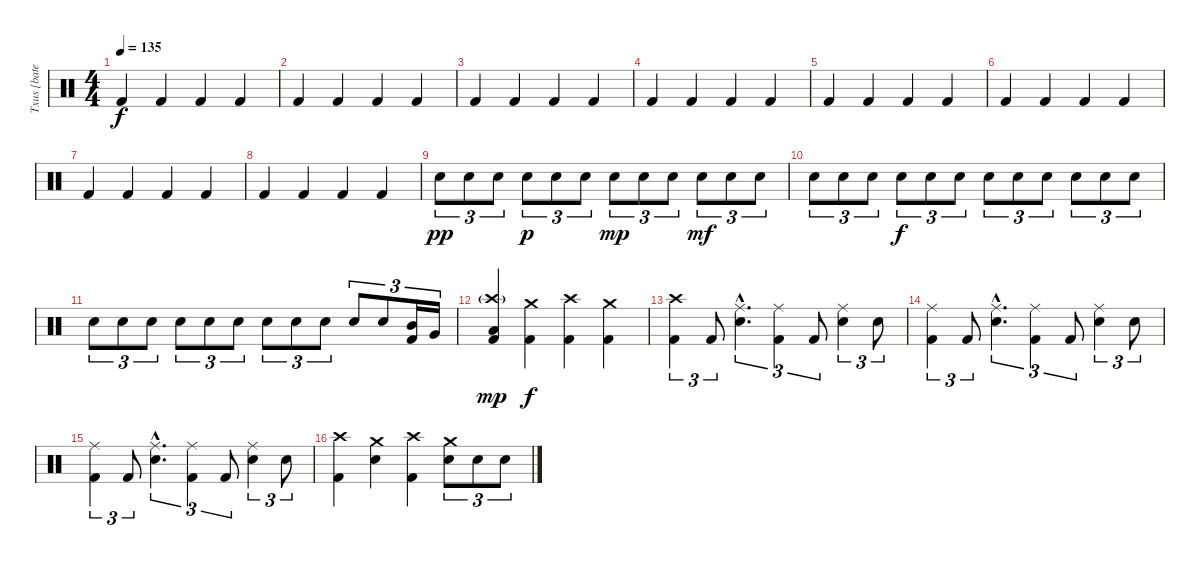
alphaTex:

\track ("Txus [bateria]" "Txus [bate") {instrument percussion}
\staff {score}
\articulation defaults
\ts (4 4)
\tempo 135
\clef neutral
\ks c "Kick (hit) 2".4{dy f} "Kick (hit) 2".4 "Kick (hit) 2".4 "Kick (hit) 2".4
|
"Kick (hit) 2".4 "Kick (hit) 2".4 "Kick (hit) 2".4 "Kick (hit) 2".4 |
"Kick (hit) 2".4 "Kick (hit) 2".4 "Kick (hit) 2".4 "Kick (hit) 2".4 |
"Kick (hit) 2".4 "Kick (hit) 2".4 "Kick (hit) 2".4 "Kick (hit) 2".4 |
"Kick (hit) 2".4 "Kick (hit) 2".4 "Kick (hit) 2".4 "Kick (hit) 2".4 |
"Kick (hit) 2".4 "Kick (hit) 2".4 "Kick (hit) 2".4 "Kick (hit) 2".4 |
"Kick (hit) 2".4 "Kick (hit) 2".4 "Kick (hit) 2".4 "Kick (hit) 2".4 |
"Kick (hit) 2".4 "Kick (hit) 2".4 "Kick (hit) 2".4 "Kick (hit) 2".4 |
"Snare (hit) 2".8{tu (3 2) dy pp} "Snare (hit) 2".8{tu (3 2)} "Snare (hit) 2".8{tu (3 2)} "Snare (hit) 2".8{tu (3 2) dy p} "Snare (hit) 2".8{tu (3 2)} "Snare (hit) 2".8{tu (3 2)} "Snare (hit) 2".8{tu (3 2) dy mp} "Snare (hit) 2".8{tu (3 2)} "Snare (hit) 2".8{tu (3 2)} "Snare (hit) 2".8{tu (3 2) dy mf} "Snare (hit) 2".8{tu (3 2)} "Snare (hit) 2".8{tu (3 2)} |
"Snare (hit) 2".8{tu (3 2)} "Snare (hit) 2".8{tu (3 2)} "Snare (hit) 2".8{tu (3 2)} "Snare (hit) 2".8{tu (3 2) dy f} "Snare (hit) 2".8{tu (3 2)} "Snare (hit) 2".8{tu (3 2)} "Snare (hit) 2".8{tu (3 2)} "Snare (hit) 2".8{tu (3 2)} "Snare (hit) 2".8{tu (3 2)} "Snare (hit) 2".8{tu (3 2)} "Snare (hit) 2".8{tu (3 2)} "Snare (hit) 2".8{tu (3 2)} |
"Snare (hit) 2".8{tu (3 2)} "Snare (hit) 2".8{tu (3 2)} "Snare (hit) 2".8{tu (3 2)} "Snare (hit) 2".8{tu (3 2)} "Snare (hit) 2".8{tu (3 2)} "Snare (hit) 2".8{tu (3 2)} "Snare (hit) 2".8{tu (3 2)} "Snare (hit) 2".8{tu (3 2)} "Snare (hit) 2".8{tu (3 2)} "Snare (hit) 2".8{tu (3 2)} "Snare (hit) 2".8{tu (3 2)} ("Mid Tom (hit)" "Kick (hit) 2").16{tu (3 2)} "Very Low Tom (hit)".16{tu (3 2)} |
("Crash high (hit)"{g} "Low Floor Tom (hit)" "Kick (hit) 2").4{dy mp} ("Crash medium (hit)" "Kick (hit) 2").4{dy f} ("Crash high (hit)" "Kick (hit) 2").4 ("Crash medium (hit)" "Kick (hit) 2").4 |
("Crash high (hit)" "Kick (hit) 2").4{tu (3 2)} "Kick (hit) 2".8{tu (3 2)} ("Ride (middle)"{hac} "Snare (hit) 2"{hac}).4{d tu (3 2)} ("Ride (middle)" "Kick (hit) 2").4{tu (3 2)} "Kick (hit) 2".8{tu (3 2)} ("Ride (middle)" "Snare (hit) 2").4{tu (3 2)} "Snare (hit) 2".8{tu (3 2)} |
("Ride (middle)" "Kick (hit) 2").4{tu (3 2)} "Kick (hit) 2".8{tu (3 2)} ("Ride (middle)"{hac} "Snare (hit) 2"{hac}).4{d tu (3 2)} ("Ride (middle)" "Kick (hit) 2").4{tu (3 2)} "Kick (hit) 2".8{tu (3 2)} ("Ride (middle)" "Snare (hit) 2").4{tu (3 2)} "Snare (hit) 2".8{tu (3 2)} |
("Ride (middle)" "Kick (hit) 2").4{tu (3 2)} "Kick (hit) 2".8{tu (3 2)} ("Ride (middle)"{hac} "Snare (hit) 2"{hac}).4{d tu (3 2)} ("Ride (middle)" "Kick (hit) 2").4{tu (3 2)} "Kick (hit) 2".8{tu (3 2)} ("Ride (middle)" "Snare (hit) 2").4{tu (3 2)} "Snare (hit) 2".8{tu (3 2)} |
("Crash high (hit)" "Kick (hit) 2").4 ("Crash medium (hit)" "Snare (hit) 2").4 ("Crash high (hit)" "Kick (hit) 2").4 ("Crash medium (hit)" "Snare (hit) 2").8{tu (3 2)} "Snare (hit) 2".8{tu (3 2)} "Snare (hit) 2".8{tu (3 2)}
